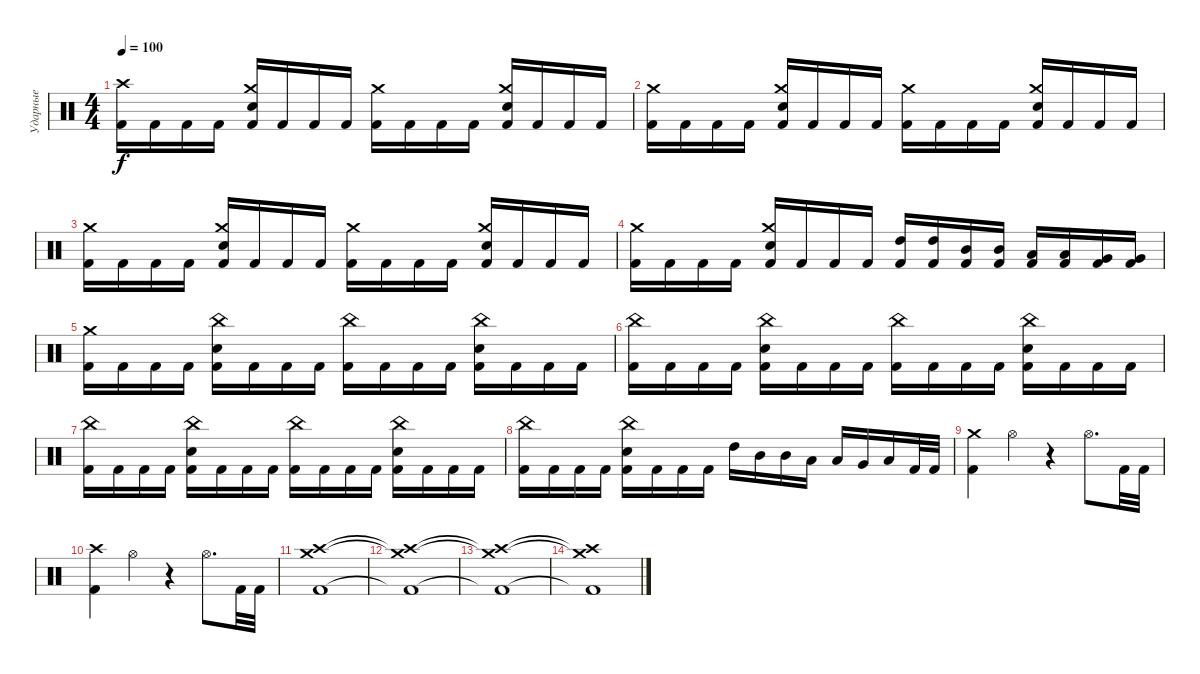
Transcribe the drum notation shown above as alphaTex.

\track ("Ударные" "Ударные") {instrument percussion}
\staff {score}
\articulation defaults
\ts (4 4)
\tempo 100
\clef neutral
\ks c
("Crash high (hit)" "Kick (hit) 2").16{dy f} "Kick (hit) 2".16 "Kick (hit) 2".16 "Kick (hit) 2".16 ("Crash medium (hit)" "Electric Snare (hit)" "Kick (hit) 2").16 "Kick (hit) 2".16 "Kick (hit) 2".16 "Kick (hit) 2".16 ("Crash medium (hit)" "Kick (hit) 2").16 "Kick (hit) 2".16 "Kick (hit) 2".16 "Kick (hit) 2".16 ("Crash medium (hit)" "Electric Snare (hit)" "Kick (hit) 2").16 "Kick (hit) 2".16 "Kick (hit) 2".16 "Kick (hit) 2".16 |
("Crash medium (hit)" "Kick (hit) 2").16 "Kick (hit) 2".16 "Kick (hit) 2".16 "Kick (hit) 2".16 ("Crash medium (hit)" "Electric Snare (hit)" "Kick (hit) 2").16 "Kick (hit) 2".16 "Kick (hit) 2".16 "Kick (hit) 2".16 ("Crash medium (hit)" "Kick (hit) 2").16 "Kick (hit) 2".16 "Kick (hit) 2".16 "Kick (hit) 2".16 ("Crash medium (hit)" "Electric Snare (hit)" "Kick (hit) 2").16 "Kick (hit) 2".16 "Kick (hit) 2".16 "Kick (hit) 2".16 |
("Crash medium (hit)" "Kick (hit) 2").16 "Kick (hit) 2".16 "Kick (hit) 2".16 "Kick (hit) 2".16 ("Crash medium (hit)" "Electric Snare (hit)" "Kick (hit) 2").16 "Kick (hit) 2".16 "Kick (hit) 2".16 "Kick (hit) 2".16 ("Crash medium (hit)" "Kick (hit) 2").16 "Kick (hit) 2".16 "Kick (hit) 2".16 "Kick (hit) 2".16 ("Crash medium (hit)" "Electric Snare (hit)" "Kick (hit) 2").16 "Kick (hit) 2".16 "Kick (hit) 2".16 "Kick (hit) 2".16 |
("Crash medium (hit)" "Kick (hit) 2").16 "Kick (hit) 2".16 "Kick (hit) 2".16 "Kick (hit) 2".16 ("Crash medium (hit)" "Electric Snare (hit)" "Kick (hit) 2").16 "Kick (hit) 2".16 "Kick (hit) 2".16 "Kick (hit) 2".16 ("High Tom (hit)" "Kick (hit) 2").16 ("High Tom (hit)" "Kick (hit) 2").16 ("Mid Tom (hit)" "Kick (hit) 2").16 ("Mid Tom (hit)" "Kick (hit) 2").16 ("Low Tom (hit)" "Kick (hit) 2").16 ("Low Tom (hit)" "Kick (hit) 2").16 ("Very Low Tom (hit)" "Kick (hit) 2").16 ("Very Low Tom (hit)" "Kick (hit) 2").16 |
("Crash medium (hit)" "Kick (hit) 2").16 "Kick (hit) 2".16 "Kick (hit) 2".16 "Kick (hit) 2".16 ("China (hit)" "Electric Snare (hit)" "Kick (hit) 2").16 "Kick (hit) 2".16 "Kick (hit) 2".16 "Kick (hit) 2".16 ("China (hit)" "Kick (hit) 2").16 "Kick (hit) 2".16 "Kick (hit) 2".16 "Kick (hit) 2".16 ("China (hit)" "Electric Snare (hit)" "Kick (hit) 2").16 "Kick (hit) 2".16 "Kick (hit) 2".16 "Kick (hit) 2".16 |
("China (hit)" "Kick (hit) 2").16 "Kick (hit) 2".16 "Kick (hit) 2".16 "Kick (hit) 2".16 ("China (hit)" "Electric Snare (hit)" "Kick (hit) 2").16 "Kick (hit) 2".16 "Kick (hit) 2".16 "Kick (hit) 2".16 ("China (hit)" "Kick (hit) 2").16 "Kick (hit) 2".16 "Kick (hit) 2".16 "Kick (hit) 2".16 ("China (hit)" "Electric Snare (hit)" "Kick (hit) 2").16 "Kick (hit) 2".16 "Kick (hit) 2".16 "Kick (hit) 2".16 |
("China (hit)" "Kick (hit) 2").16 "Kick (hit) 2".16 "Kick (hit) 2".16 "Kick (hit) 2".16 ("China (hit)" "Electric Snare (hit)" "Kick (hit) 2").16 "Kick (hit) 2".16 "Kick (hit) 2".16 "Kick (hit) 2".16 ("China (hit)" "Kick (hit) 2").16 "Kick (hit) 2".16 "Kick (hit) 2".16 "Kick (hit) 2".16 ("China (hit)" "Electric Snare (hit)" "Kick (hit) 2").16 "Kick (hit) 2".16 "Kick (hit) 2".16 "Kick (hit) 2".16 |
("China (hit)" "Kick (hit) 2").16 "Kick (hit) 2".16 "Kick (hit) 2".16 "Kick (hit) 2".16 ("China (hit)" "Electric Snare (hit)" "Kick (hit) 2").16 "Kick (hit) 2".16 "Kick (hit) 2".16 "Kick (hit) 2".16 "High Tom (hit)".16 "Mid Tom (hit)".16 "Mid Tom (hit)".16 "Low Tom (hit)".16 "Low Tom (hit)".16 "Very Low Tom (hit)".16 "Low Floor Tom (hit)".16 "Kick (hit) 2".32 "Kick (hit) 2".32 |
("Crash medium (hit)" "Kick (hit) 2").4 "Hi-Hat (open)".4 r.4 "Hi-Hat (open)".8{d} "Kick (hit) 2".32 "Kick (hit) 2".32 |
("Crash high (hit)" "Kick (hit) 2").4 "Hi-Hat (open)".4 r.4 "Hi-Hat (open)".8{d} "Kick (hit) 2".32 "Kick (hit) 2".32 |
("Crash medium (hit)" "Crash high (hit)" "Kick (hit) 2").1 |
("Crash medium (hit)"{t} "Crash high (hit)"{t} "Kick (hit) 2"{t}).1 |
("Crash medium (hit)"{t} "Crash high (hit)"{t} "Kick (hit) 2"{t}).1 |
("Crash medium (hit)"{t} "Crash high (hit)"{t} "Kick (hit) 2"{t}).1
